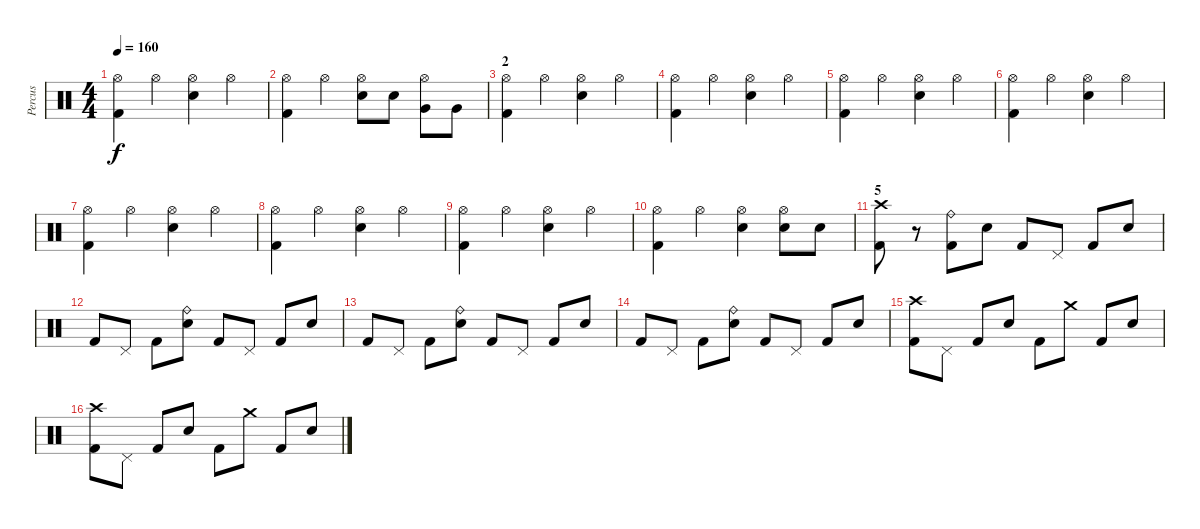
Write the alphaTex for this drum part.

\track ("Percus" "Percus") {instrument percussion}
\staff {score}
\articulation defaults
\ts (4 4)
\tempo 160
\clef neutral
\ks c
("Hi-Hat (open)" "Kick (hit) 2").4{dy f} "Hi-Hat (open)".4 ("Hi-Hat (open)" "Electric Snare (hit)").4 "Hi-Hat (open)".4 |
("Hi-Hat (open)" "Kick (hit) 2").4 "Hi-Hat (open)".4 ("Hi-Hat (open)" "Electric Snare (hit)").8 "Electric Snare (hit)".8 ("Hi-Hat (open)" "Very Low Tom (hit)").8 "Very Low Tom (hit)".8 |
\section ("" "2")
("Hi-Hat (open)" "Kick (hit) 2").4 "Hi-Hat (open)".4 ("Hi-Hat (open)" "Electric Snare (hit)").4 "Hi-Hat (open)".4 |
("Hi-Hat (open)" "Kick (hit) 2").4 "Hi-Hat (open)".4 ("Hi-Hat (open)" "Electric Snare (hit)").4 "Hi-Hat (open)".4 |
("Hi-Hat (open)" "Kick (hit) 2").4 "Hi-Hat (open)".4 ("Hi-Hat (open)" "Electric Snare (hit)").4 "Hi-Hat (open)".4 |
("Hi-Hat (open)" "Kick (hit) 2").4 "Hi-Hat (open)".4 ("Hi-Hat (open)" "Electric Snare (hit)").4 "Hi-Hat (open)".4 |
("Hi-Hat (open)" "Kick (hit) 2").4 "Hi-Hat (open)".4 ("Hi-Hat (open)" "Electric Snare (hit)").4 "Hi-Hat (open)".4 |
("Hi-Hat (open)" "Kick (hit) 2").4 "Hi-Hat (open)".4 ("Hi-Hat (open)" "Electric Snare (hit)").4 "Hi-Hat (open)".4 |
("Hi-Hat (open)" "Kick (hit) 2").4 "Hi-Hat (open)".4 ("Hi-Hat (open)" "Electric Snare (hit)").4 "Hi-Hat (open)".4 |
("Hi-Hat (open)" "Kick (hit) 2").4 "Hi-Hat (open)".4 ("Hi-Hat (open)" "Electric Snare (hit)").4 ("Hi-Hat (open)" "Electric Snare (hit)").8 "Electric Snare (hit)".8 |
\section ("" "5")
("Crash high (hit)" "Kick (hit) 2").8 r.8 ("Ride (bell)" "Kick (hit) 2").8 "Electric Snare (hit)".8 "Kick (hit) 2".8 "Pedal Hi-Hat (hit)".8 "Kick (hit) 2".8 "Electric Snare (hit)".8 |
"Kick (hit) 2".8 "Pedal Hi-Hat (hit)".8 "Kick (hit) 2".8 ("Ride (bell)" "Electric Snare (hit)").8 "Kick (hit) 2".8 "Pedal Hi-Hat (hit)".8 "Kick (hit) 2".8 "Electric Snare (hit)".8 |
"Kick (hit) 2".8 "Pedal Hi-Hat (hit)".8 "Kick (hit) 2".8 ("Ride (bell)" "Electric Snare (hit)").8 "Kick (hit) 2".8 "Pedal Hi-Hat (hit)".8 "Kick (hit) 2".8 "Electric Snare (hit)".8 |
"Kick (hit) 2".8 "Pedal Hi-Hat (hit)".8 "Kick (hit) 2".8 ("Ride (bell)" "Electric Snare (hit)").8 "Kick (hit) 2".8 "Pedal Hi-Hat (hit)".8 "Kick (hit) 2".8 "Electric Snare (hit)".8 |
("Crash high (hit)" "Kick (hit) 2").8 "Pedal Hi-Hat (hit)".8 "Kick (hit) 2".8 "Electric Snare (hit)".8 "Kick (hit) 2".8 "Crash medium (hit)".8 "Kick (hit) 2".8 "Electric Snare (hit)".8 |
("Crash high (hit)" "Kick (hit) 2").8 "Pedal Hi-Hat (hit)".8 "Kick (hit) 2".8 "Electric Snare (hit)".8 "Kick (hit) 2".8 "Crash medium (hit)".8 "Kick (hit) 2".8 "Electric Snare (hit)".8
